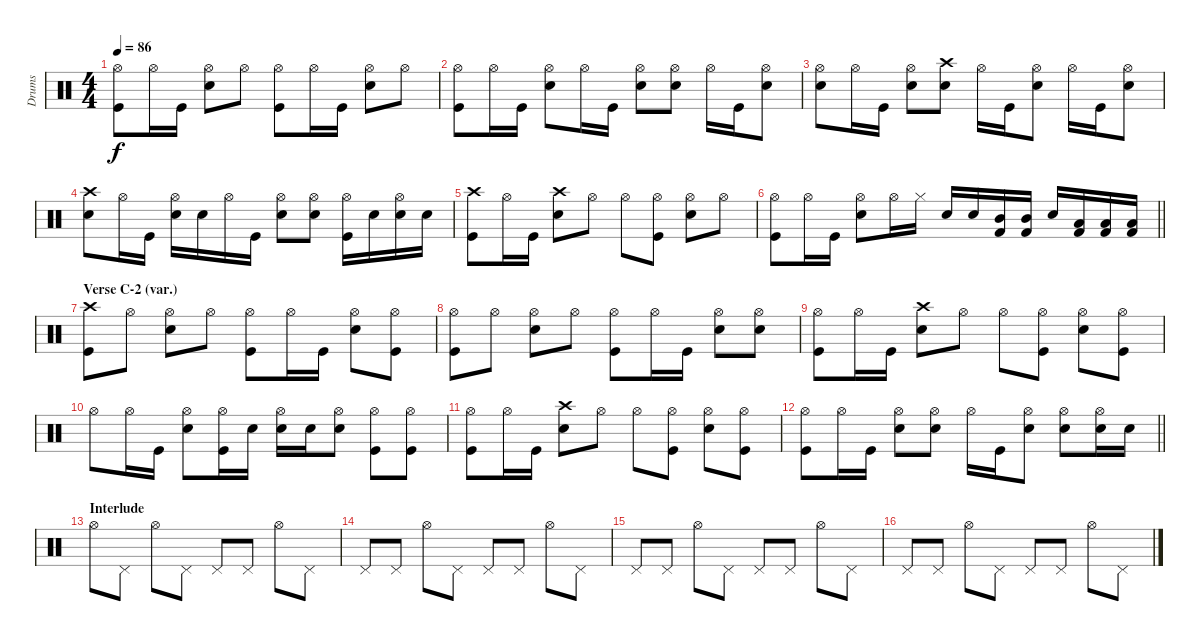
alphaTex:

\track ("Drums" "Drums") {instrument percussion}
\staff {score}
\articulation defaults
\ts (4 4)
\tempo 86
\clef neutral
\ks c
("Hi-Hat (open)" "Kick (hit)").8{dy f} "Hi-Hat (open)".16 "Kick (hit)".16 ("Hi-Hat (open)" "Snare (hit) 2").8 "Hi-Hat (open)".8 ("Hi-Hat (open)" "Kick (hit)").8 "Hi-Hat (open)".16 "Kick (hit)".16 ("Hi-Hat (open)" "Snare (hit) 2").8 "Hi-Hat (open)".8 |
("Hi-Hat (open)" "Kick (hit)").8 "Hi-Hat (open)".16 "Kick (hit)".16 ("Hi-Hat (open)" "Snare (hit) 2").8 "Hi-Hat (open)".16 "Kick (hit)".16 ("Hi-Hat (open)" "Snare (hit) 2").8 ("Hi-Hat (open)" "Snare (hit) 2").8 "Hi-Hat (open)".16 "Kick (hit)".16 ("Hi-Hat (open)" "Snare (hit) 2").8 |
("Hi-Hat (open)" "Snare (hit) 2").8 "Hi-Hat (open)".16 "Kick (hit)".16 ("Hi-Hat (open)" "Snare (hit) 2").8 ("Crash high (hit)" "Snare (hit) 2").8 "Hi-Hat (open)".16 "Kick (hit)".16 ("Hi-Hat (open)" "Snare (hit) 2").8 "Hi-Hat (open)".16 "Kick (hit)".16 ("Hi-Hat (open)" "Snare (hit) 2").8 |
("Crash high (hit)" "Snare (hit) 2").8 "Hi-Hat (open)".16 "Kick (hit)".16 ("Hi-Hat (open)" "Snare (hit) 2").16 "Snare (hit) 2".16 "Hi-Hat (open)".16 "Kick (hit)".16 ("Hi-Hat (open)" "Snare (hit) 2").8 ("Hi-Hat (open)" "Snare (hit) 2").8 ("Hi-Hat (open)" "Kick (hit)").16 "Snare (hit) 2".16 ("Hi-Hat (open)" "Snare (hit) 2").16 "Snare (hit) 2".16 |
("Crash high (hit)" "Kick (hit)").8 "Hi-Hat (open)".16 "Kick (hit)".16 ("Crash high (hit)" "Snare (hit) 2").8 "Hi-Hat (open)".8 "Hi-Hat (open)".8 ("Hi-Hat (open)" "Kick (hit)").8 ("Hi-Hat (open)" "Snare (hit) 2").8 "Hi-Hat (open)".8 |
\barLineRight lightlight
("Hi-Hat (open)" "Kick (hit)").8 "Hi-Hat (open)".16 "Kick (hit)".16 ("Hi-Hat (open)" "Snare (hit) 2").8 "Hi-Hat (open)".16 "Hi-Hat (closed)".16 "Snare (hit) 2".16 "Snare (hit) 2".16 ("Mid Tom (hit)" "Kick (hit) 2").16 ("Mid Tom (hit)" "Kick (hit) 2").16 "Snare (hit) 2".16 ("Low Tom (hit)" "Kick (hit) 2").16 ("Low Tom (hit)" "Kick (hit) 2").16 ("Low Tom (hit)" "Kick (hit) 2").16 |
\section ("" "Verse C-2 (var.)")
("Crash high (hit)" "Kick (hit)").8 "Hi-Hat (open)".8 ("Hi-Hat (open)" "Snare (hit) 2").8 "Hi-Hat (open)".8 ("Hi-Hat (open)" "Kick (hit)").8 "Hi-Hat (open)".16 "Kick (hit)".16 ("Hi-Hat (open)" "Snare (hit) 2").8 ("Hi-Hat (open)" "Kick (hit)").8 |
("Hi-Hat (open)" "Kick (hit)").8 "Hi-Hat (open)".8 ("Hi-Hat (open)" "Snare (hit) 2").8 "Hi-Hat (open)".8 ("Hi-Hat (open)" "Kick (hit)").8 "Hi-Hat (open)".16 "Kick (hit)".16 ("Hi-Hat (open)" "Snare (hit) 2").8 ("Hi-Hat (open)" "Snare (hit) 2").8 |
("Hi-Hat (open)" "Kick (hit)").8 "Hi-Hat (open)".16 "Kick (hit)".16 ("Crash high (hit)" "Snare (hit) 2").8 "Hi-Hat (open)".8 "Hi-Hat (open)".8 ("Hi-Hat (open)" "Kick (hit)").8 ("Hi-Hat (open)" "Snare (hit) 2").8 ("Hi-Hat (open)" "Kick (hit)").8 |
"Hi-Hat (open)".8 "Hi-Hat (open)".16 "Kick (hit)".16 ("Hi-Hat (open)" "Snare (hit) 2").8 ("Hi-Hat (open)" "Kick (hit)").16 "Snare (hit) 2".16 ("Hi-Hat (open)" "Snare (hit) 2").16 "Snare (hit) 2".16 ("Hi-Hat (open)" "Snare (hit) 2").8 ("Hi-Hat (open)" "Kick (hit)").8 ("Hi-Hat (open)" "Kick (hit)").8 |
("Hi-Hat (open)" "Kick (hit)").8 "Hi-Hat (open)".16 "Kick (hit)".16 ("Crash high (hit)" "Snare (hit) 2").8 "Hi-Hat (open)".8 "Hi-Hat (open)".8 ("Hi-Hat (open)" "Kick (hit)").8 ("Hi-Hat (open)" "Snare (hit) 2").8 ("Hi-Hat (open)" "Kick (hit)").8 |
\barLineRight lightlight
("Hi-Hat (open)" "Kick (hit)").8 "Hi-Hat (open)".16 "Kick (hit)".16 ("Hi-Hat (open)" "Snare (hit) 2").8 ("Hi-Hat (open)" "Snare (hit) 2").8 "Hi-Hat (open)".16 "Kick (hit)".16 ("Hi-Hat (open)" "Snare (hit) 2").8 ("Hi-Hat (open)" "Snare (hit) 2").8 ("Hi-Hat (open)" "Snare (hit) 2").16 "Snare (hit) 2".16 |
\section ("" "Interlude")
"Hi-Hat (open)".8 "Pedal Hi-Hat (hit)".8 "Hi-Hat (open)".8 "Pedal Hi-Hat (hit)".8 "Pedal Hi-Hat (hit)".8 "Pedal Hi-Hat (hit)".8 "Hi-Hat (open)".8 "Pedal Hi-Hat (hit)".8 |
"Pedal Hi-Hat (hit)".8 "Pedal Hi-Hat (hit)".8 "Hi-Hat (open)".8 "Pedal Hi-Hat (hit)".8 "Pedal Hi-Hat (hit)".8 "Pedal Hi-Hat (hit)".8 "Hi-Hat (open)".8 "Pedal Hi-Hat (hit)".8 |
"Pedal Hi-Hat (hit)".8 "Pedal Hi-Hat (hit)".8 "Hi-Hat (open)".8 "Pedal Hi-Hat (hit)".8 "Pedal Hi-Hat (hit)".8 "Pedal Hi-Hat (hit)".8 "Hi-Hat (open)".8 "Pedal Hi-Hat (hit)".8 |
"Pedal Hi-Hat (hit)".8 "Pedal Hi-Hat (hit)".8 "Hi-Hat (open)".8 "Pedal Hi-Hat (hit)".8 "Pedal Hi-Hat (hit)".8 "Pedal Hi-Hat (hit)".8 "Hi-Hat (open)".8 "Pedal Hi-Hat (hit)".8
